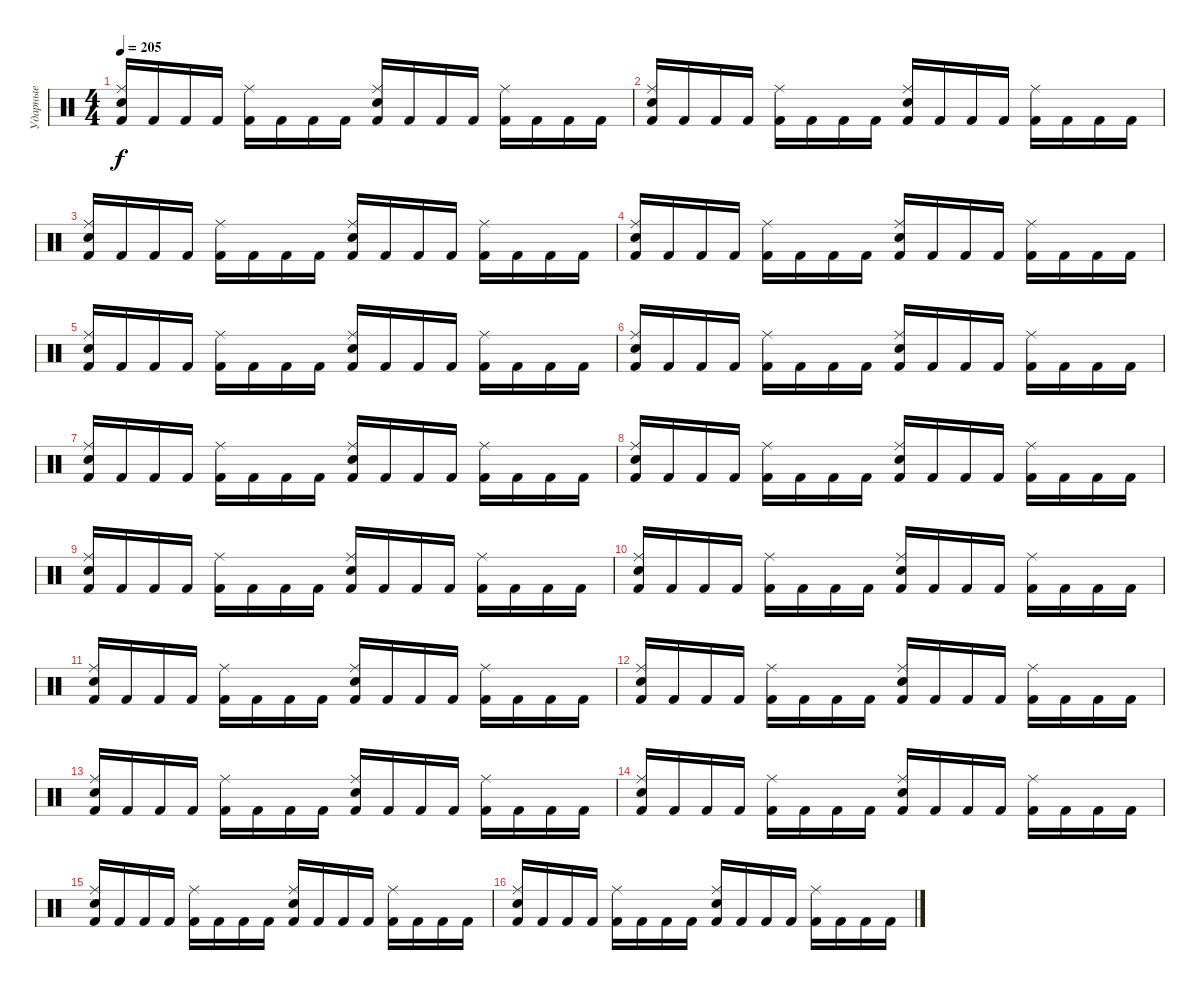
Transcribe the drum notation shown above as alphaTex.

\track ("Ударные" "Ударные") {instrument percussion}
\staff {score}
\articulation defaults
\ts (4 4)
\tempo 205
\clef neutral
\ks c
("Electric Snare (hit)" "Ride (middle)" "Kick (hit) 2").16{dy f} "Kick (hit) 2".16 "Kick (hit) 2".16 "Kick (hit) 2".16 ("Kick (hit) 2" "Ride (middle)").16 "Kick (hit) 2".16 "Kick (hit) 2".16 "Kick (hit) 2".16 ("Electric Snare (hit)" "Ride (middle)" "Kick (hit) 2").16 "Kick (hit) 2".16 "Kick (hit) 2".16 "Kick (hit) 2".16 ("Kick (hit) 2" "Ride (middle)").16 "Kick (hit) 2".16 "Kick (hit) 2".16 "Kick (hit) 2".16 |
("Electric Snare (hit)" "Ride (middle)" "Kick (hit) 2").16 "Kick (hit) 2".16 "Kick (hit) 2".16 "Kick (hit) 2".16 ("Kick (hit) 2" "Ride (middle)").16 "Kick (hit) 2".16 "Kick (hit) 2".16 "Kick (hit) 2".16 ("Electric Snare (hit)" "Ride (middle)" "Kick (hit) 2").16 "Kick (hit) 2".16 "Kick (hit) 2".16 "Kick (hit) 2".16 ("Kick (hit) 2" "Ride (middle)").16 "Kick (hit) 2".16 "Kick (hit) 2".16 "Kick (hit) 2".16 |
("Electric Snare (hit)" "Ride (middle)" "Kick (hit) 2").16 "Kick (hit) 2".16 "Kick (hit) 2".16 "Kick (hit) 2".16 ("Kick (hit) 2" "Ride (middle)").16 "Kick (hit) 2".16 "Kick (hit) 2".16 "Kick (hit) 2".16 ("Electric Snare (hit)" "Ride (middle)" "Kick (hit) 2").16 "Kick (hit) 2".16 "Kick (hit) 2".16 "Kick (hit) 2".16 ("Kick (hit) 2" "Ride (middle)").16 "Kick (hit) 2".16 "Kick (hit) 2".16 "Kick (hit) 2".16 |
("Electric Snare (hit)" "Ride (middle)" "Kick (hit) 2").16 "Kick (hit) 2".16 "Kick (hit) 2".16 "Kick (hit) 2".16 ("Kick (hit) 2" "Ride (middle)").16 "Kick (hit) 2".16 "Kick (hit) 2".16 "Kick (hit) 2".16 ("Electric Snare (hit)" "Ride (middle)" "Kick (hit) 2").16 "Kick (hit) 2".16 "Kick (hit) 2".16 "Kick (hit) 2".16 ("Kick (hit) 2" "Ride (middle)").16 "Kick (hit) 2".16 "Kick (hit) 2".16 "Kick (hit) 2".16 |
("Electric Snare (hit)" "Ride (middle)" "Kick (hit) 2").16 "Kick (hit) 2".16 "Kick (hit) 2".16 "Kick (hit) 2".16 ("Kick (hit) 2" "Ride (middle)").16 "Kick (hit) 2".16 "Kick (hit) 2".16 "Kick (hit) 2".16 ("Electric Snare (hit)" "Ride (middle)" "Kick (hit) 2").16 "Kick (hit) 2".16 "Kick (hit) 2".16 "Kick (hit) 2".16 ("Kick (hit) 2" "Ride (middle)").16 "Kick (hit) 2".16 "Kick (hit) 2".16 "Kick (hit) 2".16 |
("Electric Snare (hit)" "Ride (middle)" "Kick (hit) 2").16 "Kick (hit) 2".16 "Kick (hit) 2".16 "Kick (hit) 2".16 ("Kick (hit) 2" "Ride (middle)").16 "Kick (hit) 2".16 "Kick (hit) 2".16 "Kick (hit) 2".16 ("Electric Snare (hit)" "Ride (middle)" "Kick (hit) 2").16 "Kick (hit) 2".16 "Kick (hit) 2".16 "Kick (hit) 2".16 ("Kick (hit) 2" "Ride (middle)").16 "Kick (hit) 2".16 "Kick (hit) 2".16 "Kick (hit) 2".16 |
("Electric Snare (hit)" "Ride (middle)" "Kick (hit) 2").16 "Kick (hit) 2".16 "Kick (hit) 2".16 "Kick (hit) 2".16 ("Kick (hit) 2" "Ride (middle)").16 "Kick (hit) 2".16 "Kick (hit) 2".16 "Kick (hit) 2".16 ("Electric Snare (hit)" "Ride (middle)" "Kick (hit) 2").16 "Kick (hit) 2".16 "Kick (hit) 2".16 "Kick (hit) 2".16 ("Kick (hit) 2" "Ride (middle)").16 "Kick (hit) 2".16 "Kick (hit) 2".16 "Kick (hit) 2".16 |
("Electric Snare (hit)" "Ride (middle)" "Kick (hit) 2").16 "Kick (hit) 2".16 "Kick (hit) 2".16 "Kick (hit) 2".16 ("Kick (hit) 2" "Ride (middle)").16 "Kick (hit) 2".16 "Kick (hit) 2".16 "Kick (hit) 2".16 ("Electric Snare (hit)" "Ride (middle)" "Kick (hit) 2").16 "Kick (hit) 2".16 "Kick (hit) 2".16 "Kick (hit) 2".16 ("Kick (hit) 2" "Ride (middle)").16 "Kick (hit) 2".16 "Kick (hit) 2".16 "Kick (hit) 2".16 |
("Electric Snare (hit)" "Ride (middle)" "Kick (hit) 2").16 "Kick (hit) 2".16 "Kick (hit) 2".16 "Kick (hit) 2".16 ("Kick (hit) 2" "Ride (middle)").16 "Kick (hit) 2".16 "Kick (hit) 2".16 "Kick (hit) 2".16 ("Electric Snare (hit)" "Ride (middle)" "Kick (hit) 2").16 "Kick (hit) 2".16 "Kick (hit) 2".16 "Kick (hit) 2".16 ("Kick (hit) 2" "Ride (middle)").16 "Kick (hit) 2".16 "Kick (hit) 2".16 "Kick (hit) 2".16 |
("Electric Snare (hit)" "Ride (middle)" "Kick (hit) 2").16 "Kick (hit) 2".16 "Kick (hit) 2".16 "Kick (hit) 2".16 ("Kick (hit) 2" "Ride (middle)").16 "Kick (hit) 2".16 "Kick (hit) 2".16 "Kick (hit) 2".16 ("Electric Snare (hit)" "Ride (middle)" "Kick (hit) 2").16 "Kick (hit) 2".16 "Kick (hit) 2".16 "Kick (hit) 2".16 ("Kick (hit) 2" "Ride (middle)").16 "Kick (hit) 2".16 "Kick (hit) 2".16 "Kick (hit) 2".16 |
("Electric Snare (hit)" "Ride (middle)" "Kick (hit) 2").16 "Kick (hit) 2".16 "Kick (hit) 2".16 "Kick (hit) 2".16 ("Kick (hit) 2" "Ride (middle)").16 "Kick (hit) 2".16 "Kick (hit) 2".16 "Kick (hit) 2".16 ("Electric Snare (hit)" "Ride (middle)" "Kick (hit) 2").16 "Kick (hit) 2".16 "Kick (hit) 2".16 "Kick (hit) 2".16 ("Kick (hit) 2" "Ride (middle)").16 "Kick (hit) 2".16 "Kick (hit) 2".16 "Kick (hit) 2".16 |
("Electric Snare (hit)" "Ride (middle)" "Kick (hit) 2").16 "Kick (hit) 2".16 "Kick (hit) 2".16 "Kick (hit) 2".16 ("Kick (hit) 2" "Ride (middle)").16 "Kick (hit) 2".16 "Kick (hit) 2".16 "Kick (hit) 2".16 ("Electric Snare (hit)" "Ride (middle)" "Kick (hit) 2").16 "Kick (hit) 2".16 "Kick (hit) 2".16 "Kick (hit) 2".16 ("Kick (hit) 2" "Ride (middle)").16 "Kick (hit) 2".16 "Kick (hit) 2".16 "Kick (hit) 2".16 |
("Electric Snare (hit)" "Ride (middle)" "Kick (hit) 2").16 "Kick (hit) 2".16 "Kick (hit) 2".16 "Kick (hit) 2".16 ("Kick (hit) 2" "Ride (middle)").16 "Kick (hit) 2".16 "Kick (hit) 2".16 "Kick (hit) 2".16 ("Electric Snare (hit)" "Ride (middle)" "Kick (hit) 2").16 "Kick (hit) 2".16 "Kick (hit) 2".16 "Kick (hit) 2".16 ("Kick (hit) 2" "Ride (middle)").16 "Kick (hit) 2".16 "Kick (hit) 2".16 "Kick (hit) 2".16 |
("Electric Snare (hit)" "Ride (middle)" "Kick (hit) 2").16 "Kick (hit) 2".16 "Kick (hit) 2".16 "Kick (hit) 2".16 ("Kick (hit) 2" "Ride (middle)").16 "Kick (hit) 2".16 "Kick (hit) 2".16 "Kick (hit) 2".16 ("Electric Snare (hit)" "Ride (middle)" "Kick (hit) 2").16 "Kick (hit) 2".16 "Kick (hit) 2".16 "Kick (hit) 2".16 ("Kick (hit) 2" "Ride (middle)").16 "Kick (hit) 2".16 "Kick (hit) 2".16 "Kick (hit) 2".16 |
("Electric Snare (hit)" "Ride (middle)" "Kick (hit) 2").16 "Kick (hit) 2".16 "Kick (hit) 2".16 "Kick (hit) 2".16 ("Kick (hit) 2" "Ride (middle)").16 "Kick (hit) 2".16 "Kick (hit) 2".16 "Kick (hit) 2".16 ("Electric Snare (hit)" "Ride (middle)" "Kick (hit) 2").16 "Kick (hit) 2".16 "Kick (hit) 2".16 "Kick (hit) 2".16 ("Kick (hit) 2" "Ride (middle)").16 "Kick (hit) 2".16 "Kick (hit) 2".16 "Kick (hit) 2".16 |
("Electric Snare (hit)" "Ride (middle)" "Kick (hit) 2").16 "Kick (hit) 2".16 "Kick (hit) 2".16 "Kick (hit) 2".16 ("Kick (hit) 2" "Ride (middle)").16 "Kick (hit) 2".16 "Kick (hit) 2".16 "Kick (hit) 2".16 ("Electric Snare (hit)" "Ride (middle)" "Kick (hit) 2").16 "Kick (hit) 2".16 "Kick (hit) 2".16 "Kick (hit) 2".16 ("Kick (hit) 2" "Ride (middle)").16 "Kick (hit) 2".16 "Kick (hit) 2".16 "Kick (hit) 2".16
